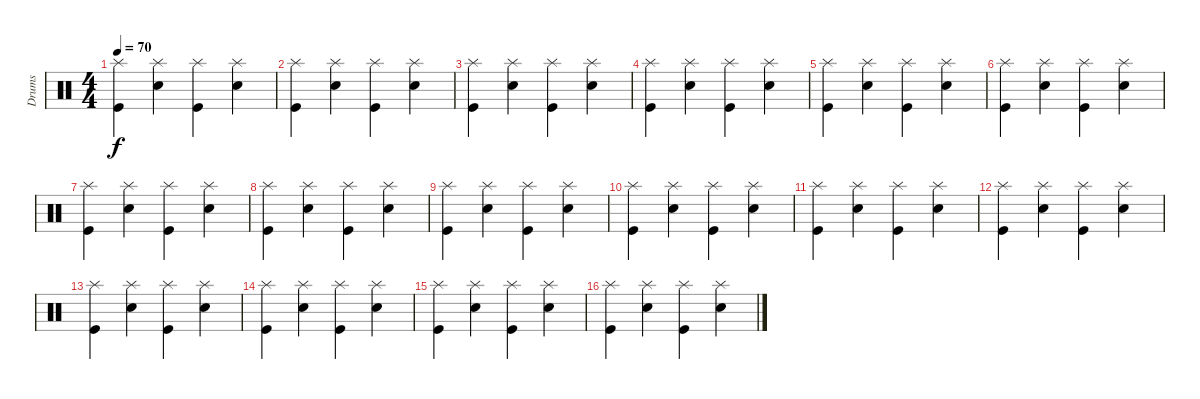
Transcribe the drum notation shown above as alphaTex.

\track ("Drums" "Drums") {instrument percussion}
\staff {score}
\articulation defaults
\ts (4 4)
\tempo 70
\clef neutral
\ks c
("Splash (hit)" "Kick (hit)").4{dy f} ("Splash (hit)" "Electric Snare (hit)").4 ("Splash (hit)" "Kick (hit)").4 ("Splash (hit)" "Electric Snare (hit)").4 |
("Splash (hit)" "Kick (hit)").4 ("Splash (hit)" "Electric Snare (hit)").4 ("Splash (hit)" "Kick (hit)").4 ("Splash (hit)" "Electric Snare (hit)").4 |
("Splash (hit)" "Kick (hit)").4 ("Splash (hit)" "Electric Snare (hit)").4 ("Splash (hit)" "Kick (hit)").4 ("Splash (hit)" "Electric Snare (hit)").4 |
("Splash (hit)" "Kick (hit)").4 ("Splash (hit)" "Electric Snare (hit)").4 ("Splash (hit)" "Kick (hit)").4 ("Splash (hit)" "Electric Snare (hit)").4 |
("Splash (hit)" "Kick (hit)").4 ("Splash (hit)" "Electric Snare (hit)").4 ("Splash (hit)" "Kick (hit)").4 ("Splash (hit)" "Electric Snare (hit)").4 |
("Splash (hit)" "Kick (hit)").4 ("Splash (hit)" "Electric Snare (hit)").4 ("Splash (hit)" "Kick (hit)").4 ("Splash (hit)" "Electric Snare (hit)").4 |
("Splash (hit)" "Kick (hit)").4 ("Splash (hit)" "Electric Snare (hit)").4 ("Splash (hit)" "Kick (hit)").4 ("Splash (hit)" "Electric Snare (hit)").4 |
("Splash (hit)" "Kick (hit)").4 ("Splash (hit)" "Electric Snare (hit)").4 ("Splash (hit)" "Kick (hit)").4 ("Splash (hit)" "Electric Snare (hit)").4 |
("Splash (hit)" "Kick (hit)").4 ("Splash (hit)" "Electric Snare (hit)").4 ("Splash (hit)" "Kick (hit)").4 ("Splash (hit)" "Electric Snare (hit)").4 |
("Splash (hit)" "Kick (hit)").4 ("Splash (hit)" "Electric Snare (hit)").4 ("Splash (hit)" "Kick (hit)").4 ("Splash (hit)" "Electric Snare (hit)").4 |
("Splash (hit)" "Kick (hit)").4 ("Splash (hit)" "Electric Snare (hit)").4 ("Splash (hit)" "Kick (hit)").4 ("Splash (hit)" "Electric Snare (hit)").4 |
("Splash (hit)" "Kick (hit)").4 ("Splash (hit)" "Electric Snare (hit)").4 ("Splash (hit)" "Kick (hit)").4 ("Splash (hit)" "Electric Snare (hit)").4 |
("Splash (hit)" "Kick (hit)").4 ("Splash (hit)" "Electric Snare (hit)").4 ("Splash (hit)" "Kick (hit)").4 ("Splash (hit)" "Electric Snare (hit)").4 |
("Splash (hit)" "Kick (hit)").4 ("Splash (hit)" "Electric Snare (hit)").4 ("Splash (hit)" "Kick (hit)").4 ("Splash (hit)" "Electric Snare (hit)").4 |
("Splash (hit)" "Kick (hit)").4 ("Splash (hit)" "Electric Snare (hit)").4 ("Splash (hit)" "Kick (hit)").4 ("Splash (hit)" "Electric Snare (hit)").4 |
("Splash (hit)" "Kick (hit)").4 ("Splash (hit)" "Electric Snare (hit)").4 ("Splash (hit)" "Kick (hit)").4 ("Splash (hit)" "Electric Snare (hit)").4
